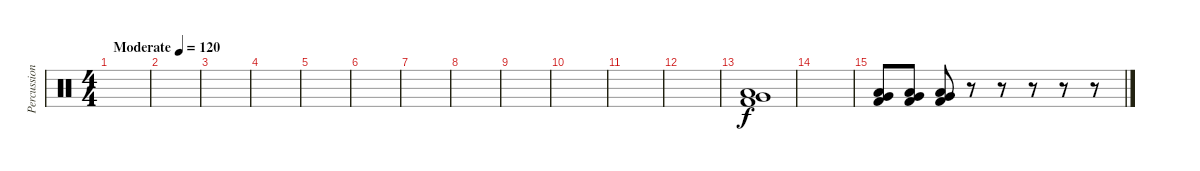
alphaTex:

\track ("Percussion" "Percussion") {instrument percussion}
\staff {score}
\articulation defaults
\ts (4 4)
\tempo (120 "Moderate")
\clef neutral
\ks c
|
|
|
|
|
|
|
|
|
|
|
|
("Very Low Tom (hit)" "Low Floor Tom (hit)" "Kick (hit) 2").1 |
|
("Very Low Tom (hit)" "Low Floor Tom (hit)" "Kick (hit) 2").8 ("Very Low Tom (hit)" "Low Floor Tom (hit)" "Kick (hit) 2").8 ("Very Low Tom (hit)" "Low Floor Tom (hit)" "Kick (hit) 2").8 r.8 r.8 r.8 r.8 r.8
